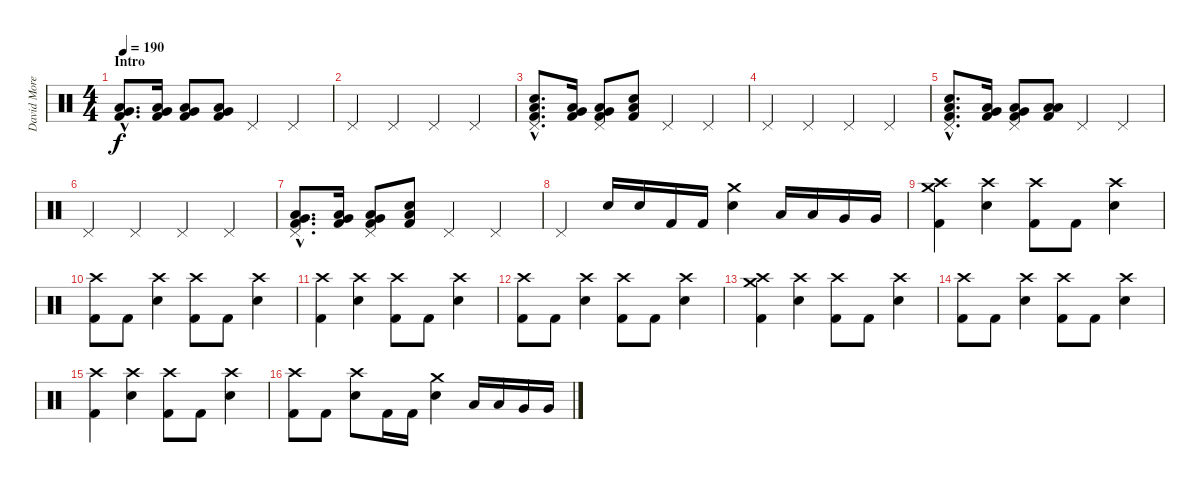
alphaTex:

\track ("David Moreno" "David More") {instrument percussion}
\staff {score}
\articulation defaults
\ts (4 4)
\section ("" "Intro")
\tempo 190
\clef neutral
\ks c
("Very Low Tom (hit)"{hac} "Low Floor Tom (hit)"{hac} "Kick (hit) 2"{hac}).8{d dy f} ("Very Low Tom (hit)" "Low Floor Tom (hit)" "Kick (hit) 2").16 ("Very Low Tom (hit)" "Low Floor Tom (hit)" "Kick (hit) 2").8 ("Very Low Tom (hit)" "Low Floor Tom (hit)" "Kick (hit) 2").8 "Pedal Hi-Hat (hit)".4 "Pedal Hi-Hat (hit)".4 |
"Pedal Hi-Hat (hit)".4 "Pedal Hi-Hat (hit)".4 "Pedal Hi-Hat (hit)".4 "Pedal Hi-Hat (hit)".4 |
("Pedal Hi-Hat (hit)"{hac} "Snare (hit) 2"{hac} "Low Floor Tom (hit)"{hac} "Kick (hit) 2"{hac}).8{d} ("Very Low Tom (hit)" "Low Floor Tom (hit)" "Kick (hit) 2").16 ("Pedal Hi-Hat (hit)" "Very Low Tom (hit)" "Low Floor Tom (hit)" "Kick (hit) 2").8 ("Snare (hit) 2" "Low Floor Tom (hit)" "Kick (hit) 2").8 "Pedal Hi-Hat (hit)".4 "Pedal Hi-Hat (hit)".4 |
"Pedal Hi-Hat (hit)".4 "Pedal Hi-Hat (hit)".4 "Pedal Hi-Hat (hit)".4 "Pedal Hi-Hat (hit)".4 |
("Pedal Hi-Hat (hit)"{hac} "Snare (hit) 2"{hac} "Low Floor Tom (hit)"{hac} "Kick (hit) 2"{hac}).8{d} ("Very Low Tom (hit)" "Low Floor Tom (hit)" "Kick (hit) 2").16 ("Pedal Hi-Hat (hit)" "Very Low Tom (hit)" "Low Floor Tom (hit)" "Kick (hit) 2").8 ("Low Floor Tom (hit)" "Low Floor Tom (hit)" "Kick (hit) 2").8 "Pedal Hi-Hat (hit)".4 "Pedal Hi-Hat (hit)".4 |
"Pedal Hi-Hat (hit)".4 "Pedal Hi-Hat (hit)".4 "Pedal Hi-Hat (hit)".4 "Pedal Hi-Hat (hit)".4 |
("Pedal Hi-Hat (hit)"{hac} "Very Low Tom (hit)"{hac} "Low Floor Tom (hit)"{hac} "Kick (hit) 2"{hac}).8{d} ("Very Low Tom (hit)" "Low Floor Tom (hit)" "Kick (hit) 2").16 ("Pedal Hi-Hat (hit)" "Very Low Tom (hit)" "Low Floor Tom (hit)" "Kick (hit) 2").8 ("Snare (hit) 2" "Low Floor Tom (hit)" "Kick (hit) 2").8 "Pedal Hi-Hat (hit)".4 "Pedal Hi-Hat (hit)".4 |
"Pedal Hi-Hat (hit)".4 "Snare (hit) 2".16 "Snare (hit) 2".16 "Kick (hit) 2".16 "Kick (hit) 2".16 ("Crash medium (hit)" "Snare (hit) 2").4 "Low Tom (hit)".16 "Low Tom (hit)".16 "Very Low Tom (hit)".16 "Very Low Tom (hit)".16 |
("Crash high (hit)" "Crash medium (hit)" "Kick (hit) 2").4 ("Crash high (hit)" "Snare (hit) 2").4 ("Crash high (hit)" "Kick (hit) 2").8 "Kick (hit) 2".8 ("Crash high (hit)" "Snare (hit) 2").4 |
("Crash high (hit)" "Kick (hit) 2").8 "Kick (hit) 2".8 ("Crash high (hit)" "Snare (hit) 2").4 ("Crash high (hit)" "Kick (hit) 2").8 "Kick (hit) 2".8 ("Crash high (hit)" "Snare (hit) 2").4 |
("Crash high (hit)" "Kick (hit) 2").4 ("Crash high (hit)" "Snare (hit) 2").4 ("Crash high (hit)" "Kick (hit) 2").8 "Kick (hit) 2".8 ("Crash high (hit)" "Snare (hit) 2").4 |
("Crash high (hit)" "Kick (hit) 2").8 "Kick (hit) 2".8 ("Crash high (hit)" "Snare (hit) 2").4 ("Crash high (hit)" "Kick (hit) 2").8 "Kick (hit) 2".8 ("Crash high (hit)" "Snare (hit) 2").4 |
("Crash high (hit)" "Crash medium (hit)" "Kick (hit) 2").4 ("Crash high (hit)" "Snare (hit) 2").4 ("Crash high (hit)" "Kick (hit) 2").8 "Kick (hit) 2".8 ("Crash high (hit)" "Snare (hit) 2").4 |
("Crash high (hit)" "Kick (hit) 2").8 "Kick (hit) 2".8 ("Crash high (hit)" "Snare (hit) 2").4 ("Crash high (hit)" "Kick (hit) 2").8 "Kick (hit) 2".8 ("Crash high (hit)" "Snare (hit) 2").4 |
("Crash high (hit)" "Kick (hit) 2").4 ("Crash high (hit)" "Snare (hit) 2").4 ("Crash high (hit)" "Kick (hit) 2").8 "Kick (hit) 2".8 ("Crash high (hit)" "Snare (hit) 2").4 |
("Crash high (hit)" "Kick (hit) 2").8 "Kick (hit) 2".8 ("Crash high (hit)" "Snare (hit) 2").8 "Kick (hit) 2".16 "Kick (hit) 2".16 ("Crash medium (hit)" "Snare (hit) 2").4 "Low Tom (hit)".16 "Low Tom (hit)".16 "Very Low Tom (hit)".16 "Very Low Tom (hit)".16
